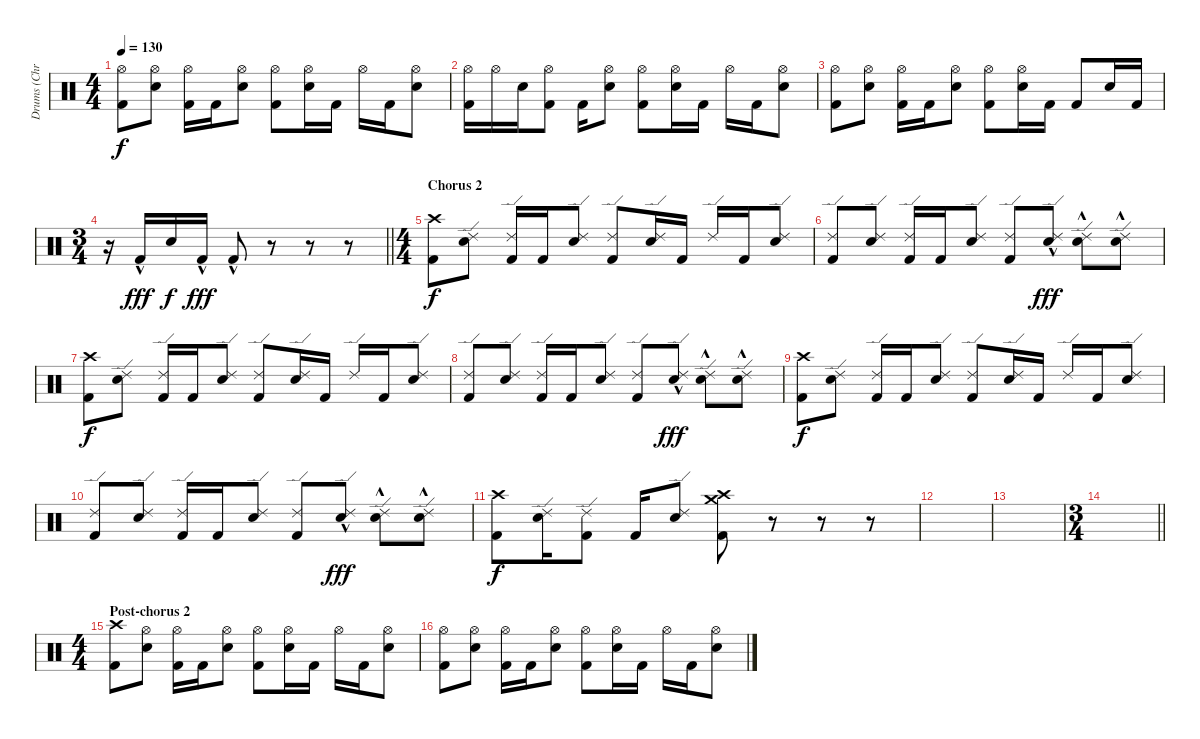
\track ("Drums (Chris Greer)" "Drums (Chr") {instrument percussion}
\staff {score}
\articulation defaults
\ts (4 4)
\tempo 130
\clef neutral
\ks c
("Hi-Hat (open)" "Kick (hit) 2").8{dy f} ("Hi-Hat (open)" "Electric Snare (hit)").8 ("Hi-Hat (open)" "Kick (hit) 2").16 "Kick (hit) 2".16 ("Hi-Hat (open)" "Electric Snare (hit)").8 ("Hi-Hat (open)" "Kick (hit) 2").8 ("Hi-Hat (open)" "Electric Snare (hit)").16 "Kick (hit) 2".16 "Hi-Hat (open)".16 "Kick (hit) 2".16 ("Hi-Hat (open)" "Electric Snare (hit)").8 |
("Hi-Hat (open)" "Kick (hit) 2").16 "Hi-Hat (open)".16 "Electric Snare (hit)".16 ("Hi-Hat (open)" "Kick (hit) 2").8 "Kick (hit) 2".16 ("Hi-Hat (open)" "Electric Snare (hit)").8 ("Hi-Hat (open)" "Kick (hit) 2").8 ("Hi-Hat (open)" "Electric Snare (hit)").16 "Kick (hit) 2".16 "Hi-Hat (open)".16 "Kick (hit) 2".16 ("Hi-Hat (open)" "Electric Snare (hit)").8 |
("Hi-Hat (open)" "Kick (hit) 2").8 ("Hi-Hat (open)" "Electric Snare (hit)").8 ("Hi-Hat (open)" "Kick (hit) 2").16 "Kick (hit) 2".16 ("Hi-Hat (open)" "Electric Snare (hit)").8 ("Hi-Hat (open)" "Kick (hit) 2").8 ("Hi-Hat (open)" "Electric Snare (hit)").16 "Kick (hit) 2".16 "Kick (hit) 2".8 "Electric Snare (hit)".16 "Kick (hit) 2".16 |
\ts (3 4)
\barLineRight lightlight
r.16 "Kick (hit) 2"{hac}.16{dy fff} "Electric Snare (hit)".16{dy f} "Kick (hit) 2"{hac}.16{dy fff} "Kick (hit) 2"{hac}.8 r.8 r.8 r.8 |
\ts (4 4)
\section ("" "Chorus 2")
("Crash high (hit)" "Kick (hit) 2").8{dy f} ("Ride (edge) 2" "Electric Snare (hit)").8 ("Ride (edge) 2" "Kick (hit) 2").16 "Kick (hit) 2".16 ("Ride (edge) 2" "Electric Snare (hit)").8 ("Ride (edge) 2" "Kick (hit) 2").8 ("Ride (edge) 2" "Electric Snare (hit)").16 "Kick (hit) 2".16 "Ride (edge) 2".16 "Kick (hit) 2".16 ("Ride (edge) 2" "Electric Snare (hit)").8 |
("Ride (edge) 2" "Kick (hit) 2").8 ("Ride (edge) 2" "Electric Snare (hit)").8 ("Ride (edge) 2" "Kick (hit) 2").16 "Kick (hit) 2".16 ("Ride (edge) 2" "Electric Snare (hit)").8 ("Ride (edge) 2" "Kick (hit) 2").8 ("Ride (edge) 2" "Electric Snare (hit)"{hac}).8{dy fff} ("Ride (edge) 2" "Electric Snare (hit)"{hac}).8 ("Ride (edge) 2" "Electric Snare (hit)"{hac}).8 |
("Crash high (hit)" "Kick (hit) 2").8{dy f} ("Ride (edge) 2" "Electric Snare (hit)").8 ("Ride (edge) 2" "Kick (hit) 2").16 "Kick (hit) 2".16 ("Ride (edge) 2" "Electric Snare (hit)").8 ("Ride (edge) 2" "Kick (hit) 2").8 ("Ride (edge) 2" "Electric Snare (hit)").16 "Kick (hit) 2".16 "Ride (edge) 2".16 "Kick (hit) 2".16 ("Ride (edge) 2" "Electric Snare (hit)").8 |
("Ride (edge) 2" "Kick (hit) 2").8 ("Ride (edge) 2" "Electric Snare (hit)").8 ("Ride (edge) 2" "Kick (hit) 2").16 "Kick (hit) 2".16 ("Ride (edge) 2" "Electric Snare (hit)").8 ("Ride (edge) 2" "Kick (hit) 2").8 ("Ride (edge) 2" "Electric Snare (hit)"{hac}).8{dy fff} ("Ride (edge) 2" "Electric Snare (hit)"{hac}).8 ("Ride (edge) 2" "Electric Snare (hit)"{hac}).8 |
("Crash high (hit)" "Kick (hit) 2").8{dy f} ("Ride (edge) 2" "Electric Snare (hit)").8 ("Ride (edge) 2" "Kick (hit) 2").16 "Kick (hit) 2".16 ("Ride (edge) 2" "Electric Snare (hit)").8 ("Ride (edge) 2" "Kick (hit) 2").8 ("Ride (edge) 2" "Electric Snare (hit)").16 "Kick (hit) 2".16 "Ride (edge) 2".16 "Kick (hit) 2".16 ("Ride (edge) 2" "Electric Snare (hit)").8 |
("Ride (edge) 2" "Kick (hit) 2").8 ("Ride (edge) 2" "Electric Snare (hit)").8 ("Ride (edge) 2" "Kick (hit) 2").16 "Kick (hit) 2".16 ("Ride (edge) 2" "Electric Snare (hit)").8 ("Ride (edge) 2" "Kick (hit) 2").8 ("Ride (edge) 2" "Electric Snare (hit)"{hac}).8{dy fff} ("Ride (edge) 2" "Electric Snare (hit)"{hac}).8 ("Ride (edge) 2" "Electric Snare (hit)"{hac}).8 |
("Crash high (hit)" "Kick (hit) 2").8{dy f} ("Ride (edge) 2" "Electric Snare (hit)").16 ("Ride (edge) 2" "Kick (hit) 2").8 "Kick (hit) 2".16 ("Ride (edge) 2" "Electric Snare (hit)").8 ("Crash high (hit)" "Crash medium (hit)" "Kick (hit) 2").8 r.8 r.8 r.8 |
|
|
\ts (3 4)
\barLineRight lightlight
|
\ts (4 4)
\section ("" "Post-chorus 2")
("Crash high (hit)" "Kick (hit) 2").8 ("Hi-Hat (open)" "Electric Snare (hit)").8 ("Hi-Hat (open)" "Kick (hit) 2").16 "Kick (hit) 2".16 ("Hi-Hat (open)" "Electric Snare (hit)").8 ("Hi-Hat (open)" "Kick (hit) 2").8 ("Hi-Hat (open)" "Electric Snare (hit)").16 "Kick (hit) 2".16 "Hi-Hat (open)".16 "Kick (hit) 2".16 ("Hi-Hat (open)" "Electric Snare (hit)").8 |
("Hi-Hat (open)" "Kick (hit) 2").8 ("Hi-Hat (open)" "Electric Snare (hit)").8 ("Hi-Hat (open)" "Kick (hit) 2").16 "Kick (hit) 2".16 ("Hi-Hat (open)" "Electric Snare (hit)").8 ("Hi-Hat (open)" "Kick (hit) 2").8 ("Hi-Hat (open)" "Electric Snare (hit)").16 "Kick (hit) 2".16 "Hi-Hat (open)".16 "Kick (hit) 2".16 ("Hi-Hat (open)" "Electric Snare (hit)").8
